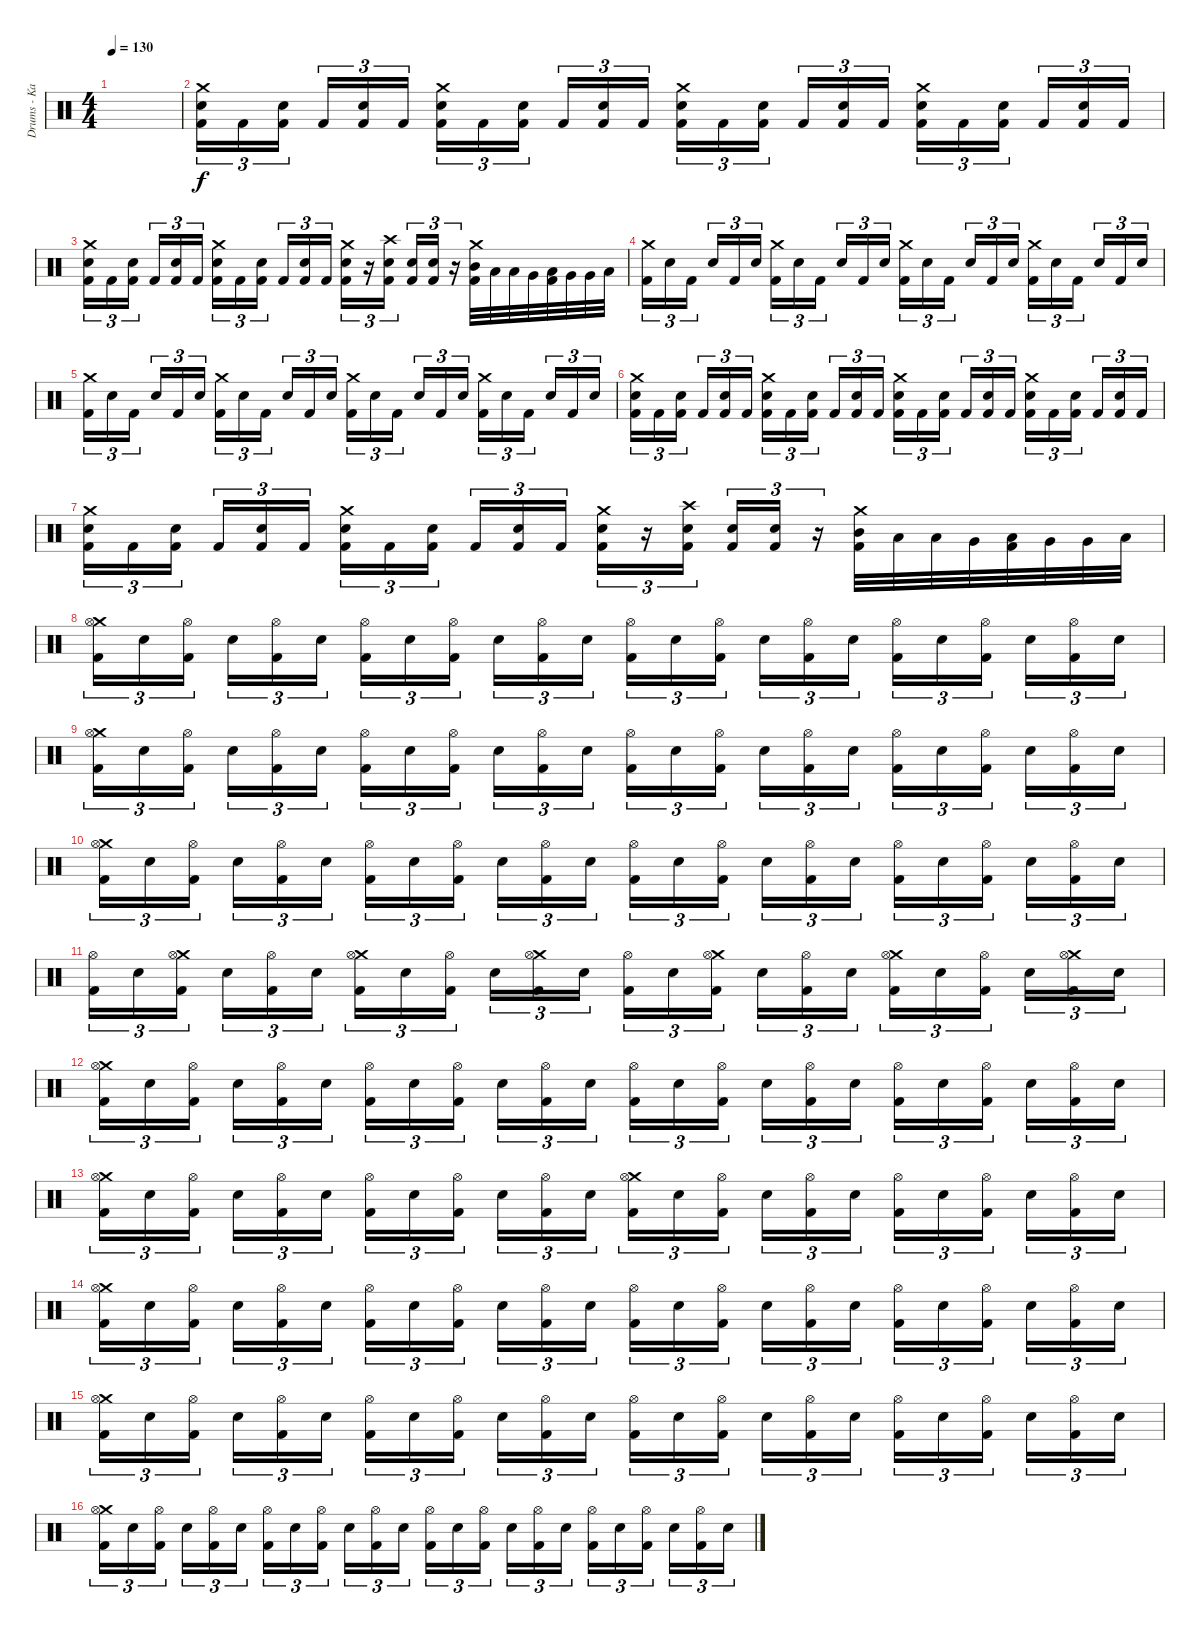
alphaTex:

\track ("Drums - Kai Hahto " "Drums - Ka") {instrument percussion}
\staff {score}
\articulation defaults
\ts (4 4)
\tempo 130
\clef neutral
\ks c
|
("Crash medium (hit)" "Snare (hit) 2" "Kick (hit) 2").16{tu (3 2)} "Kick (hit) 2".16{tu (3 2)} ("Snare (hit) 2" "Kick (hit) 2").16{tu (3 2) beam splitsecondary} "Kick (hit) 2".16{tu (3 2)} ("Snare (hit) 2" "Kick (hit) 2").16{tu (3 2)} "Kick (hit) 2".16{tu (3 2)} ("Crash medium (hit)" "Snare (hit) 2" "Kick (hit) 2").16{tu (3 2)} "Kick (hit) 2".16{tu (3 2)} ("Snare (hit) 2" "Kick (hit) 2").16{tu (3 2) beam splitsecondary} "Kick (hit) 2".16{tu (3 2)} ("Snare (hit) 2" "Kick (hit) 2").16{tu (3 2)} "Kick (hit) 2".16{tu (3 2)} ("Crash medium (hit)" "Snare (hit) 2" "Kick (hit) 2").16{tu (3 2)} "Kick (hit) 2".16{tu (3 2)} ("Snare (hit) 2" "Kick (hit) 2").16{tu (3 2) beam splitsecondary} "Kick (hit) 2".16{tu (3 2)} ("Snare (hit) 2" "Kick (hit) 2").16{tu (3 2)} "Kick (hit) 2".16{tu (3 2)} ("Crash medium (hit)" "Snare (hit) 2" "Kick (hit) 2").16{tu (3 2)} "Kick (hit) 2".16{tu (3 2)} ("Snare (hit) 2" "Kick (hit) 2").16{tu (3 2) beam splitsecondary} "Kick (hit) 2".16{tu (3 2)} ("Snare (hit) 2" "Kick (hit) 2").16{tu (3 2)} "Kick (hit) 2".16{tu (3 2)} |
("Crash medium (hit)" "Snare (hit) 2" "Kick (hit) 2").16{tu (3 2)} "Kick (hit) 2".16{tu (3 2)} ("Snare (hit) 2" "Kick (hit) 2").16{tu (3 2) beam splitsecondary} "Kick (hit) 2".16{tu (3 2)} ("Snare (hit) 2" "Kick (hit) 2").16{tu (3 2)} "Kick (hit) 2".16{tu (3 2)} ("Crash medium (hit)" "Snare (hit) 2" "Kick (hit) 2").16{tu (3 2)} "Kick (hit) 2".16{tu (3 2)} ("Snare (hit) 2" "Kick (hit) 2").16{tu (3 2) beam splitsecondary} "Kick (hit) 2".16{tu (3 2)} ("Snare (hit) 2" "Kick (hit) 2").16{tu (3 2)} "Kick (hit) 2".16{tu (3 2)} ("Crash medium (hit)" "Snare (hit) 2" "Kick (hit) 2").16{tu (3 2)} r.16{tu (3 2)} ("Crash high (hit)" "Snare (hit) 2" "Kick (hit) 2").16{tu (3 2) beam splitsecondary} ("Snare (hit) 2" "Kick (hit) 2").16{tu (3 2)} ("Snare (hit) 2" "Kick (hit) 2").16{tu (3 2)} r.16{tu (3 2)} ("Crash medium (hit)" "Mid Tom (hit)" "Kick (hit) 2").32 "Low Tom (hit)".32 "Low Tom (hit)".32 "Very Low Tom (hit)".32 ("Low Tom (hit)" "Kick (hit) 2").32 "Very Low Tom (hit)".32 "Very Low Tom (hit)".32 "Low Floor Tom (hit)".32 |
("Crash medium (hit)" "Kick (hit) 2").16{tu (3 2)} "Snare (hit) 2".16{tu (3 2)} "Kick (hit) 2".16{tu (3 2) beam splitsecondary} "Snare (hit) 2".16{tu (3 2)} "Kick (hit) 2".16{tu (3 2)} "Snare (hit) 2".16{tu (3 2)} ("Crash medium (hit)" "Kick (hit) 2").16{tu (3 2)} "Snare (hit) 2".16{tu (3 2)} "Kick (hit) 2".16{tu (3 2) beam splitsecondary} "Snare (hit) 2".16{tu (3 2)} "Kick (hit) 2".16{tu (3 2)} "Snare (hit) 2".16{tu (3 2)} ("Crash medium (hit)" "Kick (hit) 2").16{tu (3 2)} "Snare (hit) 2".16{tu (3 2)} "Kick (hit) 2".16{tu (3 2) beam splitsecondary} "Snare (hit) 2".16{tu (3 2)} "Kick (hit) 2".16{tu (3 2)} "Snare (hit) 2".16{tu (3 2)} ("Crash medium (hit)" "Kick (hit) 2").16{tu (3 2)} "Snare (hit) 2".16{tu (3 2)} "Kick (hit) 2".16{tu (3 2) beam splitsecondary} "Snare (hit) 2".16{tu (3 2)} "Kick (hit) 2".16{tu (3 2)} "Snare (hit) 2".16{tu (3 2)} |
("Crash medium (hit)" "Kick (hit) 2").16{tu (3 2)} "Snare (hit) 2".16{tu (3 2)} "Kick (hit) 2".16{tu (3 2) beam splitsecondary} "Snare (hit) 2".16{tu (3 2)} "Kick (hit) 2".16{tu (3 2)} "Snare (hit) 2".16{tu (3 2)} ("Crash medium (hit)" "Kick (hit) 2").16{tu (3 2)} "Snare (hit) 2".16{tu (3 2)} "Kick (hit) 2".16{tu (3 2) beam splitsecondary} "Snare (hit) 2".16{tu (3 2)} "Kick (hit) 2".16{tu (3 2)} "Snare (hit) 2".16{tu (3 2)} ("Crash medium (hit)" "Kick (hit) 2").16{tu (3 2)} "Snare (hit) 2".16{tu (3 2)} "Kick (hit) 2".16{tu (3 2) beam splitsecondary} "Snare (hit) 2".16{tu (3 2)} "Kick (hit) 2".16{tu (3 2)} "Snare (hit) 2".16{tu (3 2)} ("Crash medium (hit)" "Kick (hit) 2").16{tu (3 2)} "Snare (hit) 2".16{tu (3 2)} "Kick (hit) 2".16{tu (3 2) beam splitsecondary} "Snare (hit) 2".16{tu (3 2)} "Kick (hit) 2".16{tu (3 2)} "Snare (hit) 2".16{tu (3 2)} |
("Crash medium (hit)" "Snare (hit) 2" "Kick (hit) 2").16{tu (3 2)} "Kick (hit) 2".16{tu (3 2)} ("Snare (hit) 2" "Kick (hit) 2").16{tu (3 2) beam splitsecondary} "Kick (hit) 2".16{tu (3 2)} ("Snare (hit) 2" "Kick (hit) 2").16{tu (3 2)} "Kick (hit) 2".16{tu (3 2)} ("Crash medium (hit)" "Snare (hit) 2" "Kick (hit) 2").16{tu (3 2)} "Kick (hit) 2".16{tu (3 2)} ("Snare (hit) 2" "Kick (hit) 2").16{tu (3 2) beam splitsecondary} "Kick (hit) 2".16{tu (3 2)} ("Snare (hit) 2" "Kick (hit) 2").16{tu (3 2)} "Kick (hit) 2".16{tu (3 2)} ("Crash medium (hit)" "Snare (hit) 2" "Kick (hit) 2").16{tu (3 2)} "Kick (hit) 2".16{tu (3 2)} ("Snare (hit) 2" "Kick (hit) 2").16{tu (3 2) beam splitsecondary} "Kick (hit) 2".16{tu (3 2)} ("Snare (hit) 2" "Kick (hit) 2").16{tu (3 2)} "Kick (hit) 2".16{tu (3 2)} ("Crash medium (hit)" "Snare (hit) 2" "Kick (hit) 2").16{tu (3 2)} "Kick (hit) 2".16{tu (3 2)} ("Snare (hit) 2" "Kick (hit) 2").16{tu (3 2) beam splitsecondary} "Kick (hit) 2".16{tu (3 2)} ("Snare (hit) 2" "Kick (hit) 2").16{tu (3 2)} "Kick (hit) 2".16{tu (3 2)} |
("Crash medium (hit)" "Snare (hit) 2" "Kick (hit) 2").16{tu (3 2)} "Kick (hit) 2".16{tu (3 2)} ("Snare (hit) 2" "Kick (hit) 2").16{tu (3 2) beam splitsecondary} "Kick (hit) 2".16{tu (3 2)} ("Snare (hit) 2" "Kick (hit) 2").16{tu (3 2)} "Kick (hit) 2".16{tu (3 2)} ("Crash medium (hit)" "Snare (hit) 2" "Kick (hit) 2").16{tu (3 2)} "Kick (hit) 2".16{tu (3 2)} ("Snare (hit) 2" "Kick (hit) 2").16{tu (3 2) beam splitsecondary} "Kick (hit) 2".16{tu (3 2)} ("Snare (hit) 2" "Kick (hit) 2").16{tu (3 2)} "Kick (hit) 2".16{tu (3 2)} ("Crash medium (hit)" "Snare (hit) 2" "Kick (hit) 2").16{tu (3 2)} r.16{tu (3 2)} ("Crash high (hit)" "Snare (hit) 2" "Kick (hit) 2").16{tu (3 2) beam splitsecondary} ("Snare (hit) 2" "Kick (hit) 2").16{tu (3 2)} ("Snare (hit) 2" "Kick (hit) 2").16{tu (3 2)} r.16{tu (3 2)} ("Crash medium (hit)" "Mid Tom (hit)" "Kick (hit) 2").32 "Low Tom (hit)".32 "Low Tom (hit)".32 "Very Low Tom (hit)".32 ("Low Tom (hit)" "Kick (hit) 2").32 "Very Low Tom (hit)".32 "Very Low Tom (hit)".32 "Low Floor Tom (hit)".32 |
("Crash medium (hit)" "Hi-Hat (open)" "Kick (hit) 2").16{tu (3 2)} "Snare (hit) 2".16{tu (3 2)} ("Hi-Hat (open)" "Kick (hit) 2").16{tu (3 2) beam splitsecondary} "Snare (hit) 2".16{tu (3 2)} ("Hi-Hat (open)" "Kick (hit) 2").16{tu (3 2)} "Snare (hit) 2".16{tu (3 2)} ("Hi-Hat (open)" "Kick (hit) 2").16{tu (3 2)} "Snare (hit) 2".16{tu (3 2)} ("Hi-Hat (open)" "Kick (hit) 2").16{tu (3 2) beam splitsecondary} "Snare (hit) 2".16{tu (3 2)} ("Hi-Hat (open)" "Kick (hit) 2").16{tu (3 2)} "Snare (hit) 2".16{tu (3 2)} ("Hi-Hat (open)" "Kick (hit) 2").16{tu (3 2)} "Snare (hit) 2".16{tu (3 2)} ("Hi-Hat (open)" "Kick (hit) 2").16{tu (3 2) beam splitsecondary} "Snare (hit) 2".16{tu (3 2)} ("Hi-Hat (open)" "Kick (hit) 2").16{tu (3 2)} "Snare (hit) 2".16{tu (3 2)} ("Hi-Hat (open)" "Kick (hit) 2").16{tu (3 2)} "Snare (hit) 2".16{tu (3 2)} ("Hi-Hat (open)" "Kick (hit) 2").16{tu (3 2) beam splitsecondary} "Snare (hit) 2".16{tu (3 2)} ("Hi-Hat (open)" "Kick (hit) 2").16{tu (3 2)} "Snare (hit) 2".16{tu (3 2)} |
("Crash medium (hit)" "Hi-Hat (open)" "Kick (hit) 2").16{tu (3 2)} "Snare (hit) 2".16{tu (3 2)} ("Hi-Hat (open)" "Kick (hit) 2").16{tu (3 2) beam splitsecondary} "Snare (hit) 2".16{tu (3 2)} ("Hi-Hat (open)" "Kick (hit) 2").16{tu (3 2)} "Snare (hit) 2".16{tu (3 2)} ("Hi-Hat (open)" "Kick (hit) 2").16{tu (3 2)} "Snare (hit) 2".16{tu (3 2)} ("Hi-Hat (open)" "Kick (hit) 2").16{tu (3 2) beam splitsecondary} "Snare (hit) 2".16{tu (3 2)} ("Hi-Hat (open)" "Kick (hit) 2").16{tu (3 2)} "Snare (hit) 2".16{tu (3 2)} ("Hi-Hat (open)" "Kick (hit) 2").16{tu (3 2)} "Snare (hit) 2".16{tu (3 2)} ("Hi-Hat (open)" "Kick (hit) 2").16{tu (3 2) beam splitsecondary} "Snare (hit) 2".16{tu (3 2)} ("Hi-Hat (open)" "Kick (hit) 2").16{tu (3 2)} "Snare (hit) 2".16{tu (3 2)} ("Hi-Hat (open)" "Kick (hit) 2").16{tu (3 2)} "Snare (hit) 2".16{tu (3 2)} ("Hi-Hat (open)" "Kick (hit) 2").16{tu (3 2) beam splitsecondary} "Snare (hit) 2".16{tu (3 2)} ("Hi-Hat (open)" "Kick (hit) 2").16{tu (3 2)} "Snare (hit) 2".16{tu (3 2)} |
("Crash medium (hit)" "Hi-Hat (open)" "Kick (hit) 2").16{tu (3 2)} "Snare (hit) 2".16{tu (3 2)} ("Hi-Hat (open)" "Kick (hit) 2").16{tu (3 2) beam splitsecondary} "Snare (hit) 2".16{tu (3 2)} ("Hi-Hat (open)" "Kick (hit) 2").16{tu (3 2)} "Snare (hit) 2".16{tu (3 2)} ("Hi-Hat (open)" "Kick (hit) 2").16{tu (3 2)} "Snare (hit) 2".16{tu (3 2)} ("Hi-Hat (open)" "Kick (hit) 2").16{tu (3 2) beam splitsecondary} "Snare (hit) 2".16{tu (3 2)} ("Hi-Hat (open)" "Kick (hit) 2").16{tu (3 2)} "Snare (hit) 2".16{tu (3 2)} ("Hi-Hat (open)" "Kick (hit) 2").16{tu (3 2)} "Snare (hit) 2".16{tu (3 2)} ("Hi-Hat (open)" "Kick (hit) 2").16{tu (3 2) beam splitsecondary} "Snare (hit) 2".16{tu (3 2)} ("Hi-Hat (open)" "Kick (hit) 2").16{tu (3 2)} "Snare (hit) 2".16{tu (3 2)} ("Hi-Hat (open)" "Kick (hit) 2").16{tu (3 2)} "Snare (hit) 2".16{tu (3 2)} ("Hi-Hat (open)" "Kick (hit) 2").16{tu (3 2) beam splitsecondary} "Snare (hit) 2".16{tu (3 2)} ("Hi-Hat (open)" "Kick (hit) 2").16{tu (3 2)} "Snare (hit) 2".16{tu (3 2)} |
("Hi-Hat (open)" "Kick (hit) 2").16{tu (3 2)} "Snare (hit) 2".16{tu (3 2)} ("Crash medium (hit)" "Hi-Hat (open)" "Kick (hit) 2").16{tu (3 2) beam splitsecondary} "Snare (hit) 2".16{tu (3 2)} ("Hi-Hat (open)" "Kick (hit) 2").16{tu (3 2)} "Snare (hit) 2".16{tu (3 2)} ("Crash medium (hit)" "Hi-Hat (open)" "Kick (hit) 2").16{tu (3 2)} "Snare (hit) 2".16{tu (3 2)} ("Hi-Hat (open)" "Kick (hit) 2").16{tu (3 2) beam splitsecondary} "Snare (hit) 2".16{tu (3 2)} ("Crash medium (hit)" "Hi-Hat (open)" "Kick (hit) 2").16{tu (3 2)} "Snare (hit) 2".16{tu (3 2)} ("Hi-Hat (open)" "Kick (hit) 2").16{tu (3 2)} "Snare (hit) 2".16{tu (3 2)} ("Crash medium (hit)" "Hi-Hat (open)" "Kick (hit) 2").16{tu (3 2) beam splitsecondary} "Snare (hit) 2".16{tu (3 2)} ("Hi-Hat (open)" "Kick (hit) 2").16{tu (3 2)} "Snare (hit) 2".16{tu (3 2)} ("Crash medium (hit)" "Hi-Hat (open)" "Kick (hit) 2").16{tu (3 2)} "Snare (hit) 2".16{tu (3 2)} ("Hi-Hat (open)" "Kick (hit) 2").16{tu (3 2) beam splitsecondary} "Snare (hit) 2".16{tu (3 2)} ("Crash medium (hit)" "Hi-Hat (open)" "Kick (hit) 2").16{tu (3 2)} "Snare (hit) 2".16{tu (3 2)} |
("Crash medium (hit)" "Hi-Hat (open)" "Kick (hit) 2").16{tu (3 2)} "Snare (hit) 2".16{tu (3 2)} ("Hi-Hat (open)" "Kick (hit) 2").16{tu (3 2) beam splitsecondary} "Snare (hit) 2".16{tu (3 2)} ("Hi-Hat (open)" "Kick (hit) 2").16{tu (3 2)} "Snare (hit) 2".16{tu (3 2)} ("Hi-Hat (open)" "Kick (hit) 2").16{tu (3 2)} "Snare (hit) 2".16{tu (3 2)} ("Hi-Hat (open)" "Kick (hit) 2").16{tu (3 2) beam splitsecondary} "Snare (hit) 2".16{tu (3 2)} ("Hi-Hat (open)" "Kick (hit) 2").16{tu (3 2)} "Snare (hit) 2".16{tu (3 2)} ("Hi-Hat (open)" "Kick (hit) 2").16{tu (3 2)} "Snare (hit) 2".16{tu (3 2)} ("Hi-Hat (open)" "Kick (hit) 2").16{tu (3 2) beam splitsecondary} "Snare (hit) 2".16{tu (3 2)} ("Hi-Hat (open)" "Kick (hit) 2").16{tu (3 2)} "Snare (hit) 2".16{tu (3 2)} ("Hi-Hat (open)" "Kick (hit) 2").16{tu (3 2)} "Snare (hit) 2".16{tu (3 2)} ("Hi-Hat (open)" "Kick (hit) 2").16{tu (3 2) beam splitsecondary} "Snare (hit) 2".16{tu (3 2)} ("Hi-Hat (open)" "Kick (hit) 2").16{tu (3 2)} "Snare (hit) 2".16{tu (3 2)} |
("Crash medium (hit)" "Hi-Hat (open)" "Kick (hit) 2").16{tu (3 2)} "Snare (hit) 2".16{tu (3 2)} ("Hi-Hat (open)" "Kick (hit) 2").16{tu (3 2) beam splitsecondary} "Snare (hit) 2".16{tu (3 2)} ("Hi-Hat (open)" "Kick (hit) 2").16{tu (3 2)} "Snare (hit) 2".16{tu (3 2)} ("Hi-Hat (open)" "Kick (hit) 2").16{tu (3 2)} "Snare (hit) 2".16{tu (3 2)} ("Hi-Hat (open)" "Kick (hit) 2").16{tu (3 2) beam splitsecondary} "Snare (hit) 2".16{tu (3 2)} ("Hi-Hat (open)" "Kick (hit) 2").16{tu (3 2)} "Snare (hit) 2".16{tu (3 2)} ("Crash medium (hit)" "Hi-Hat (open)" "Kick (hit) 2").16{tu (3 2)} "Snare (hit) 2".16{tu (3 2)} ("Hi-Hat (open)" "Kick (hit) 2").16{tu (3 2) beam splitsecondary} "Snare (hit) 2".16{tu (3 2)} ("Hi-Hat (open)" "Kick (hit) 2").16{tu (3 2)} "Snare (hit) 2".16{tu (3 2)} ("Hi-Hat (open)" "Kick (hit) 2").16{tu (3 2)} "Snare (hit) 2".16{tu (3 2)} ("Hi-Hat (open)" "Kick (hit) 2").16{tu (3 2) beam splitsecondary} "Snare (hit) 2".16{tu (3 2)} ("Hi-Hat (open)" "Kick (hit) 2").16{tu (3 2)} "Snare (hit) 2".16{tu (3 2)} |
("Crash medium (hit)" "Hi-Hat (open)" "Kick (hit) 2").16{tu (3 2)} "Snare (hit) 2".16{tu (3 2)} ("Hi-Hat (open)" "Kick (hit) 2").16{tu (3 2) beam splitsecondary} "Snare (hit) 2".16{tu (3 2)} ("Hi-Hat (open)" "Kick (hit) 2").16{tu (3 2)} "Snare (hit) 2".16{tu (3 2)} ("Hi-Hat (open)" "Kick (hit) 2").16{tu (3 2)} "Snare (hit) 2".16{tu (3 2)} ("Hi-Hat (open)" "Kick (hit) 2").16{tu (3 2) beam splitsecondary} "Snare (hit) 2".16{tu (3 2)} ("Hi-Hat (open)" "Kick (hit) 2").16{tu (3 2)} "Snare (hit) 2".16{tu (3 2)} ("Hi-Hat (open)" "Kick (hit) 2").16{tu (3 2)} "Snare (hit) 2".16{tu (3 2)} ("Hi-Hat (open)" "Kick (hit) 2").16{tu (3 2) beam splitsecondary} "Snare (hit) 2".16{tu (3 2)} ("Hi-Hat (open)" "Kick (hit) 2").16{tu (3 2)} "Snare (hit) 2".16{tu (3 2)} ("Hi-Hat (open)" "Kick (hit) 2").16{tu (3 2)} "Snare (hit) 2".16{tu (3 2)} ("Hi-Hat (open)" "Kick (hit) 2").16{tu (3 2) beam splitsecondary} "Snare (hit) 2".16{tu (3 2)} ("Hi-Hat (open)" "Kick (hit) 2").16{tu (3 2)} "Snare (hit) 2".16{tu (3 2)} |
("Crash medium (hit)" "Hi-Hat (open)" "Kick (hit) 2").16{tu (3 2)} "Snare (hit) 2".16{tu (3 2)} ("Hi-Hat (open)" "Kick (hit) 2").16{tu (3 2) beam splitsecondary} "Snare (hit) 2".16{tu (3 2)} ("Hi-Hat (open)" "Kick (hit) 2").16{tu (3 2)} "Snare (hit) 2".16{tu (3 2)} ("Hi-Hat (open)" "Kick (hit) 2").16{tu (3 2)} "Snare (hit) 2".16{tu (3 2)} ("Hi-Hat (open)" "Kick (hit) 2").16{tu (3 2) beam splitsecondary} "Snare (hit) 2".16{tu (3 2)} ("Hi-Hat (open)" "Kick (hit) 2").16{tu (3 2)} "Snare (hit) 2".16{tu (3 2)} ("Hi-Hat (open)" "Kick (hit) 2").16{tu (3 2)} "Snare (hit) 2".16{tu (3 2)} ("Hi-Hat (open)" "Kick (hit) 2").16{tu (3 2) beam splitsecondary} "Snare (hit) 2".16{tu (3 2)} ("Hi-Hat (open)" "Kick (hit) 2").16{tu (3 2)} "Snare (hit) 2".16{tu (3 2)} ("Hi-Hat (open)" "Kick (hit) 2").16{tu (3 2)} "Snare (hit) 2".16{tu (3 2)} ("Hi-Hat (open)" "Kick (hit) 2").16{tu (3 2) beam splitsecondary} "Snare (hit) 2".16{tu (3 2)} ("Hi-Hat (open)" "Kick (hit) 2").16{tu (3 2)} "Snare (hit) 2".16{tu (3 2)} |
("Crash medium (hit)" "Hi-Hat (open)" "Kick (hit) 2").16{tu (3 2)} "Snare (hit) 2".16{tu (3 2)} ("Hi-Hat (open)" "Kick (hit) 2").16{tu (3 2) beam splitsecondary} "Snare (hit) 2".16{tu (3 2)} ("Hi-Hat (open)" "Kick (hit) 2").16{tu (3 2)} "Snare (hit) 2".16{tu (3 2)} ("Hi-Hat (open)" "Kick (hit) 2").16{tu (3 2)} "Snare (hit) 2".16{tu (3 2)} ("Hi-Hat (open)" "Kick (hit) 2").16{tu (3 2) beam splitsecondary} "Snare (hit) 2".16{tu (3 2)} ("Hi-Hat (open)" "Kick (hit) 2").16{tu (3 2)} "Snare (hit) 2".16{tu (3 2)} ("Hi-Hat (open)" "Kick (hit) 2").16{tu (3 2)} "Snare (hit) 2".16{tu (3 2)} ("Hi-Hat (open)" "Kick (hit) 2").16{tu (3 2) beam splitsecondary} "Snare (hit) 2".16{tu (3 2)} ("Hi-Hat (open)" "Kick (hit) 2").16{tu (3 2)} "Snare (hit) 2".16{tu (3 2)} ("Hi-Hat (open)" "Kick (hit) 2").16{tu (3 2)} "Snare (hit) 2".16{tu (3 2)} ("Hi-Hat (open)" "Kick (hit) 2").16{tu (3 2) beam splitsecondary} "Snare (hit) 2".16{tu (3 2)} ("Hi-Hat (open)" "Kick (hit) 2").16{tu (3 2)} "Snare (hit) 2".16{tu (3 2)}
